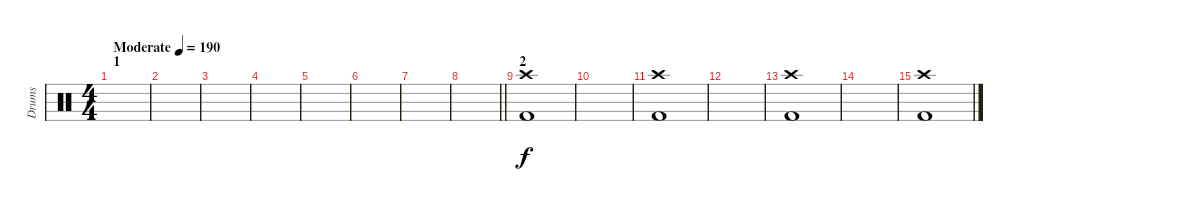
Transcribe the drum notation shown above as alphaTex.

\track ("Drums" "Drums") {instrument percussion}
\staff {score}
\articulation defaults
\ts (4 4)
\section ("" "1")
\tempo (190 "Moderate")
\clef neutral
\ks c
|
|
|
|
|
|
|
\barLineRight lightlight
|
\section ("" "2")
("Crash high (hit)" "Kick (hit) 2").1 |
|
("Crash high (hit)" "Kick (hit) 2").1 |
|
("Crash high (hit)" "Kick (hit) 2").1 |
|
("Crash high (hit)" "Kick (hit) 2").1
